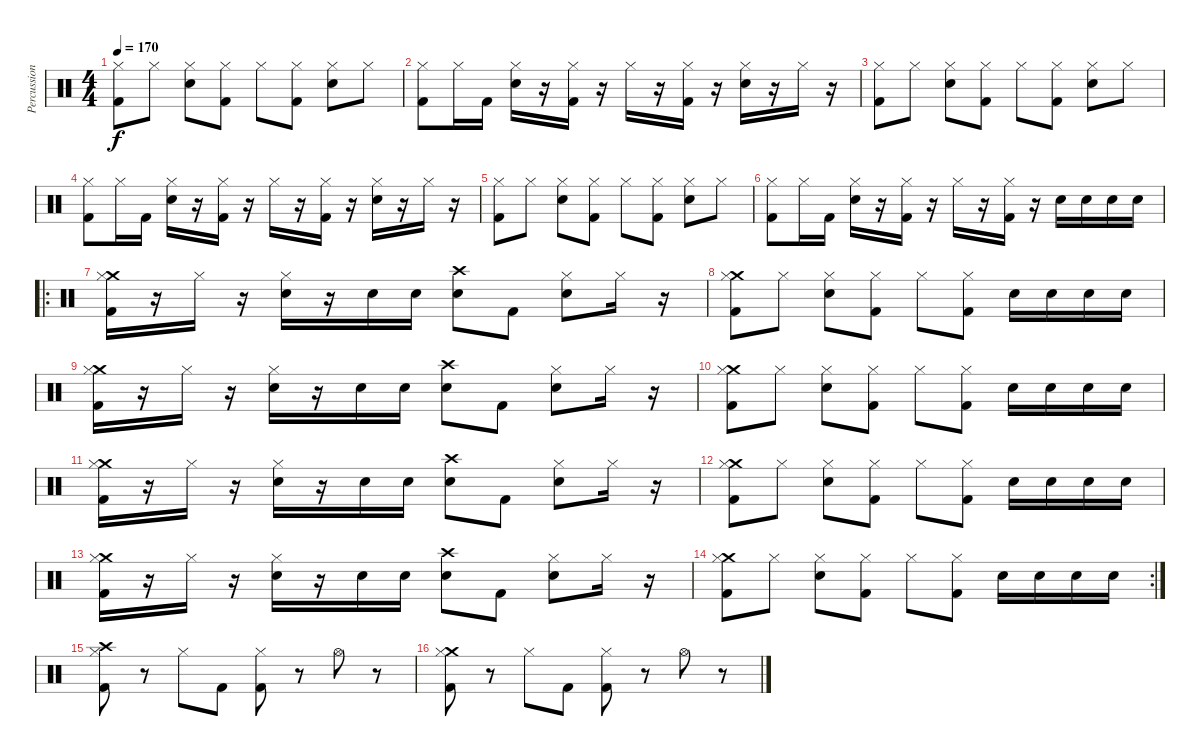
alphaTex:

\track ("Percussions" "Percussion") {instrument percussion}
\staff {score}
\articulation defaults
\ts (4 4)
\tempo 170
\clef neutral
\ks c
("Hi-Hat (closed)" "Kick (hit) 2").8{dy f} "Hi-Hat (closed)".8 ("Hi-Hat (closed)" "Electric Snare (hit)").8 ("Hi-Hat (closed)" "Kick (hit) 2").8 "Hi-Hat (closed)".8 ("Hi-Hat (closed)" "Kick (hit) 2").8 ("Hi-Hat (closed)" "Electric Snare (hit)").8 "Hi-Hat (closed)".8 |
("Hi-Hat (closed)" "Kick (hit) 2").8 "Hi-Hat (closed)".16 "Kick (hit) 2".16 ("Hi-Hat (closed)" "Electric Snare (hit)").16 r.16 ("Hi-Hat (closed)" "Kick (hit) 2").16 r.16 "Hi-Hat (closed)".16 r.16 ("Hi-Hat (closed)" "Kick (hit) 2").16 r.16 ("Hi-Hat (closed)" "Electric Snare (hit)").16 r.16 "Hi-Hat (closed)".16 r.16 |
("Hi-Hat (closed)" "Kick (hit) 2").8 "Hi-Hat (closed)".8 ("Hi-Hat (closed)" "Electric Snare (hit)").8 ("Hi-Hat (closed)" "Kick (hit) 2").8 "Hi-Hat (closed)".8 ("Hi-Hat (closed)" "Kick (hit) 2").8 ("Hi-Hat (closed)" "Electric Snare (hit)").8 "Hi-Hat (closed)".8 |
("Hi-Hat (closed)" "Kick (hit) 2").8 "Hi-Hat (closed)".16 "Kick (hit) 2".16 ("Hi-Hat (closed)" "Electric Snare (hit)").16 r.16 ("Hi-Hat (closed)" "Kick (hit) 2").16 r.16 "Hi-Hat (closed)".16 r.16 ("Hi-Hat (closed)" "Kick (hit) 2").16 r.16 ("Hi-Hat (closed)" "Electric Snare (hit)").16 r.16 "Hi-Hat (closed)".16 r.16 |
("Hi-Hat (closed)" "Kick (hit) 2").8 "Hi-Hat (closed)".8 ("Hi-Hat (closed)" "Electric Snare (hit)").8 ("Hi-Hat (closed)" "Kick (hit) 2").8 "Hi-Hat (closed)".8 ("Hi-Hat (closed)" "Kick (hit) 2").8 ("Hi-Hat (closed)" "Electric Snare (hit)").8 "Hi-Hat (closed)".8 |
("Hi-Hat (closed)" "Kick (hit) 2").8 "Hi-Hat (closed)".16 "Kick (hit) 2".16 ("Hi-Hat (closed)" "Electric Snare (hit)").16 r.16 ("Hi-Hat (closed)" "Kick (hit) 2").16 r.16 "Hi-Hat (closed)".16 r.16 ("Hi-Hat (closed)" "Kick (hit) 2").16 r.16 "Electric Snare (hit)".16 "Electric Snare (hit)".16 "Electric Snare (hit)".16 "Electric Snare (hit)".16 |
\ro
("Crash medium (hit)" "Hi-Hat (closed)" "Kick (hit) 2").16 r.16 "Hi-Hat (closed)".16 r.16 ("Hi-Hat (closed)" "Electric Snare (hit)").16 r.16 "Electric Snare (hit)".16 "Electric Snare (hit)".16 ("Crash high (hit)" "Electric Snare (hit)").8 "Kick (hit) 2".8 ("Hi-Hat (closed)" "Electric Snare (hit)").8 "Hi-Hat (closed)".16 r.16 |
("Crash medium (hit)" "Hi-Hat (closed)" "Kick (hit) 2").8 "Hi-Hat (closed)".8 ("Hi-Hat (closed)" "Electric Snare (hit)").8 ("Hi-Hat (closed)" "Kick (hit) 2").8 "Hi-Hat (closed)".8 ("Hi-Hat (closed)" "Kick (hit) 2").8 "Electric Snare (hit)".16 "Electric Snare (hit)".16 "Electric Snare (hit)".16 "Electric Snare (hit)".16 |
("Crash medium (hit)" "Hi-Hat (closed)" "Kick (hit) 2").16 r.16 "Hi-Hat (closed)".16 r.16 ("Hi-Hat (closed)" "Electric Snare (hit)").16 r.16 "Electric Snare (hit)".16 "Electric Snare (hit)".16 ("Crash high (hit)" "Electric Snare (hit)").8 "Kick (hit) 2".8 ("Hi-Hat (closed)" "Electric Snare (hit)").8 "Hi-Hat (closed)".16 r.16 |
("Crash medium (hit)" "Hi-Hat (closed)" "Kick (hit) 2").8 "Hi-Hat (closed)".8 ("Hi-Hat (closed)" "Electric Snare (hit)").8 ("Hi-Hat (closed)" "Kick (hit) 2").8 "Hi-Hat (closed)".8 ("Hi-Hat (closed)" "Kick (hit) 2").8 "Electric Snare (hit)".16 "Electric Snare (hit)".16 "Electric Snare (hit)".16 "Electric Snare (hit)".16 |
("Crash medium (hit)" "Hi-Hat (closed)" "Kick (hit) 2").16 r.16 "Hi-Hat (closed)".16 r.16 ("Hi-Hat (closed)" "Electric Snare (hit)").16 r.16 "Electric Snare (hit)".16 "Electric Snare (hit)".16 ("Crash high (hit)" "Electric Snare (hit)").8 "Kick (hit) 2".8 ("Hi-Hat (closed)" "Electric Snare (hit)").8 "Hi-Hat (closed)".16 r.16 |
("Crash medium (hit)" "Hi-Hat (closed)" "Kick (hit) 2").8 "Hi-Hat (closed)".8 ("Hi-Hat (closed)" "Electric Snare (hit)").8 ("Hi-Hat (closed)" "Kick (hit) 2").8 "Hi-Hat (closed)".8 ("Hi-Hat (closed)" "Kick (hit) 2").8 "Electric Snare (hit)".16 "Electric Snare (hit)".16 "Electric Snare (hit)".16 "Electric Snare (hit)".16 |
("Crash medium (hit)" "Hi-Hat (closed)" "Kick (hit) 2").16 r.16 "Hi-Hat (closed)".16 r.16 ("Hi-Hat (closed)" "Electric Snare (hit)").16 r.16 "Electric Snare (hit)".16 "Electric Snare (hit)".16 ("Crash high (hit)" "Electric Snare (hit)").8 "Kick (hit) 2".8 ("Hi-Hat (closed)" "Electric Snare (hit)").8 "Hi-Hat (closed)".16 r.16 |
\rc 2
("Crash medium (hit)" "Hi-Hat (closed)" "Kick (hit) 2").8 "Hi-Hat (closed)".8 ("Hi-Hat (closed)" "Electric Snare (hit)").8 ("Hi-Hat (closed)" "Kick (hit) 2").8 "Hi-Hat (closed)".8 ("Hi-Hat (closed)" "Kick (hit) 2").8 "Electric Snare (hit)".16 "Electric Snare (hit)".16 "Electric Snare (hit)".16 "Electric Snare (hit)".16 |
("Crash high (hit)" "Hi-Hat (closed)" "Kick (hit) 2").8 r.8 "Hi-Hat (closed)".8 "Kick (hit) 2".8 ("Hi-Hat (closed)" "Kick (hit) 2").8 r.8 "Hi-Hat (open)".8 r.8 |
("Crash medium (hit)" "Hi-Hat (closed)" "Kick (hit) 2").8 r.8 "Hi-Hat (closed)".8 "Kick (hit) 2".8 ("Hi-Hat (closed)" "Kick (hit) 2").8 r.8 "Hi-Hat (open)".8 r.8
